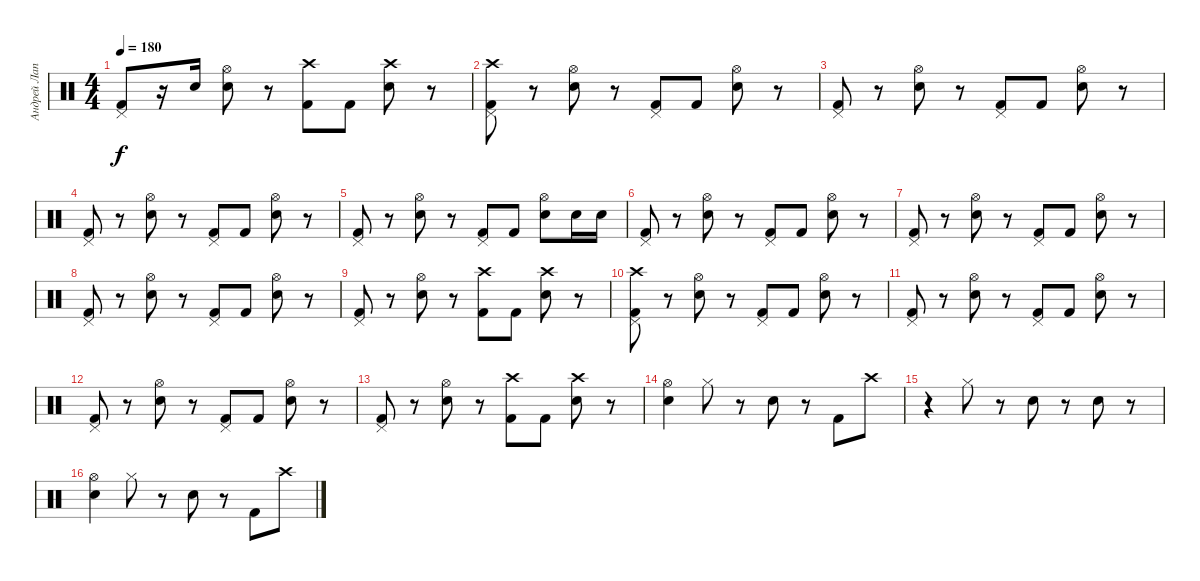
\track ("Андрей Лаптев" "Андрей Лап") {instrument percussion}
\staff {score}
\articulation defaults
\ts (4 4)
\tempo 180
\clef neutral
\ks c
("Kick (hit) 2" "Pedal Hi-Hat (hit)").8{dy f} r.16 "Snare (hit) 2".16 ("Snare (hit) 2" "Hi-Hat (open)").8 r.8 ("Kick (hit) 2" "Crash high (hit)").8 "Kick (hit) 2".8 ("Snare (hit) 2" "Crash high (hit)").8 r.8 |
("Kick (hit) 2" "Crash high (hit)" "Pedal Hi-Hat (hit)").8 r.8 ("Snare (hit) 2" "Hi-Hat (open)").8 r.8 ("Kick (hit) 2" "Pedal Hi-Hat (hit)").8 "Kick (hit) 2".8 ("Snare (hit) 2" "Hi-Hat (open)").8 r.8 |
("Kick (hit) 2" "Pedal Hi-Hat (hit)").8 r.8 ("Snare (hit) 2" "Hi-Hat (open)").8 r.8 ("Kick (hit) 2" "Pedal Hi-Hat (hit)").8 "Kick (hit) 2".8 ("Snare (hit) 2" "Hi-Hat (open)").8 r.8 |
("Kick (hit) 2" "Pedal Hi-Hat (hit)").8 r.8 ("Snare (hit) 2" "Hi-Hat (open)").8 r.8 ("Kick (hit) 2" "Pedal Hi-Hat (hit)").8 "Kick (hit) 2".8 ("Snare (hit) 2" "Hi-Hat (open)").8 r.8 |
("Kick (hit) 2" "Pedal Hi-Hat (hit)").8 r.8 ("Snare (hit) 2" "Hi-Hat (open)").8 r.8 ("Kick (hit) 2" "Pedal Hi-Hat (hit)").8 "Kick (hit) 2".8 ("Snare (hit) 2" "Hi-Hat (open)").8 "Snare (hit) 2".16 "Snare (hit) 2".16 |
("Kick (hit) 2" "Pedal Hi-Hat (hit)").8 r.8 ("Snare (hit) 2" "Hi-Hat (open)").8 r.8 ("Kick (hit) 2" "Pedal Hi-Hat (hit)").8 "Kick (hit) 2".8 ("Snare (hit) 2" "Hi-Hat (open)").8 r.8 |
("Kick (hit) 2" "Pedal Hi-Hat (hit)").8 r.8 ("Snare (hit) 2" "Hi-Hat (open)").8 r.8 ("Kick (hit) 2" "Pedal Hi-Hat (hit)").8 "Kick (hit) 2".8 ("Snare (hit) 2" "Hi-Hat (open)").8 r.8 |
("Kick (hit) 2" "Pedal Hi-Hat (hit)").8 r.8 ("Snare (hit) 2" "Hi-Hat (open)").8 r.8 ("Kick (hit) 2" "Pedal Hi-Hat (hit)").8 "Kick (hit) 2".8 ("Snare (hit) 2" "Hi-Hat (open)").8 r.8 |
("Kick (hit) 2" "Pedal Hi-Hat (hit)").8 r.8 ("Snare (hit) 2" "Hi-Hat (open)").8 r.8 ("Kick (hit) 2" "Crash high (hit)").8 "Kick (hit) 2".8 ("Snare (hit) 2" "Crash high (hit)").8 r.8 |
("Kick (hit) 2" "Crash high (hit)" "Pedal Hi-Hat (hit)").8 r.8 ("Snare (hit) 2" "Hi-Hat (open)").8 r.8 ("Kick (hit) 2" "Pedal Hi-Hat (hit)").8 "Kick (hit) 2".8 ("Snare (hit) 2" "Hi-Hat (open)").8 r.8 |
("Kick (hit) 2" "Pedal Hi-Hat (hit)").8 r.8 ("Snare (hit) 2" "Hi-Hat (open)").8 r.8 ("Kick (hit) 2" "Pedal Hi-Hat (hit)").8 "Kick (hit) 2".8 ("Snare (hit) 2" "Hi-Hat (open)").8 r.8 |
("Kick (hit) 2" "Pedal Hi-Hat (hit)").8 r.8 ("Snare (hit) 2" "Hi-Hat (open)").8 r.8 ("Kick (hit) 2" "Pedal Hi-Hat (hit)").8 "Kick (hit) 2".8 ("Snare (hit) 2" "Hi-Hat (open)").8 r.8 |
("Kick (hit) 2" "Pedal Hi-Hat (hit)").8 r.8 ("Snare (hit) 2" "Hi-Hat (open)").8 r.8 ("Kick (hit) 2" "Crash high (hit)").8 "Kick (hit) 2".8 ("Snare (hit) 2" "Crash high (hit)").8 r.8 |
("Snare (hit) 2" "Hi-Hat (open)").4 "Hi-Hat (closed)".8 r.8 "Snare (hit) 2".8 r.8 "Kick (hit) 2".8 "Crash high (hit)".8 |
r.4 "Hi-Hat (closed)".8 r.8 "Snare (hit) 2".8 r.8 "Snare (hit) 2".8 r.8 |
("Snare (hit) 2" "Hi-Hat (open)").4 "Hi-Hat (closed)".8 r.8 "Snare (hit) 2".8 r.8 "Kick (hit) 2".8 "Crash high (hit)".8
